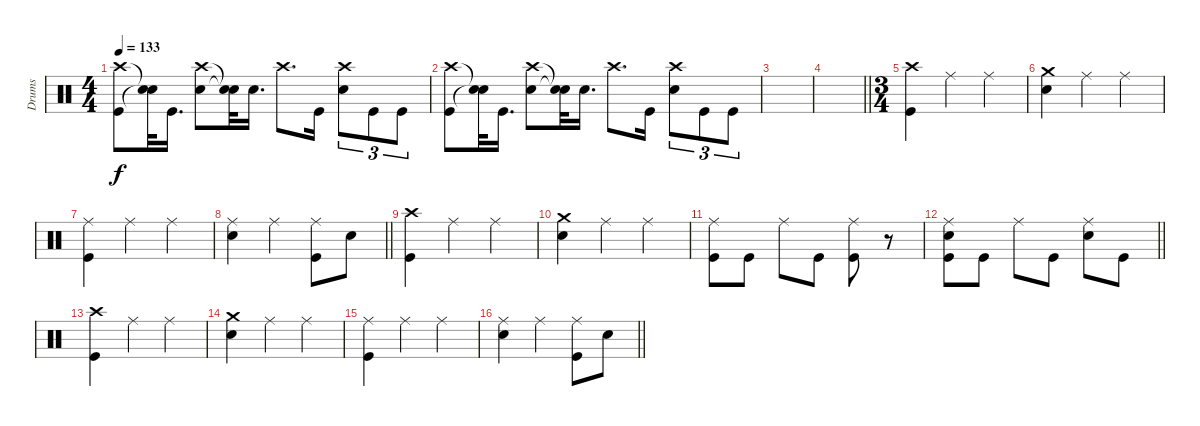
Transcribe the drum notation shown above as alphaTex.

\track ("Drums" "Drums") {instrument percussion}
\staff
\articulation defaults
\ts (4 4)
\tempo 133
\clef neutral
\ks c
("Crash high (hit)" "Kick (hit)").8{dy f} ("Snare (hit)"{t} "Snare (hit)"{t}).32 "Kick (hit)".16{d} ("Crash high (hit)" "Electric Snare (hit)").8 ("Snare (hit)"{t} "Snare (hit)"{t}).32 "Electric Snare (hit)".16{d} "Crash high (hit)".8{d} "Kick (hit)".16 ("Crash high (hit)" "Electric Snare (hit)").8{tu (3 2)} "Kick (hit)".8{tu (3 2)} "Kick (hit)".8{tu (3 2)} |
("Crash high (hit)" "Kick (hit)").8 ("Snare (hit)"{t} "Snare (hit)"{t}).32 "Kick (hit)".16{d} ("Crash high (hit)" "Electric Snare (hit)").8 ("Snare (hit)"{t} "Snare (hit)"{t}).32 "Electric Snare (hit)".16{d} "Crash high (hit)".8{d} "Kick (hit)".16 ("Crash high (hit)" "Electric Snare (hit)").8{tu (3 2)} "Kick (hit)".8{tu (3 2)} "Kick (hit)".8{tu (3 2)} |
|
\barLineRight lightlight
|
\ts (3 4)
\section ("" "")
("Crash high (hit)" "Kick (hit)").4 "Ride (middle)".4 "Ride (middle)".4 |
("Crash medium (hit)" "Electric Snare (hit)").4 "Ride (middle)".4 "Ride (middle)".4 |
("Ride (middle)" "Kick (hit)").4 "Ride (middle)".4 "Ride (middle)".4 |
\barLineRight lightlight
("Ride (middle)" "Electric Snare (hit)").4 "Ride (middle)".4 ("Ride (middle)" "Kick (hit)").8 "Electric Snare (hit)".8 |
("Crash high (hit)" "Kick (hit)").4 "Ride (middle)".4 "Ride (middle)".4 |
("Crash medium (hit)" "Electric Snare (hit)").4 "Ride (middle)".4 "Ride (middle)".4 |
("Ride (middle)" "Kick (hit)").8 "Kick (hit)".8 "Ride (middle)".8 "Kick (hit)".8 ("Ride (middle)" "Kick (hit)").8 r.8 |
\barLineRight lightlight
("Ride (middle)" "Electric Snare (hit)" "Kick (hit)").8 "Kick (hit)".8 "Ride (middle)".8 "Kick (hit)".8 ("Ride (middle)" "Electric Snare (hit)").8 "Kick (hit)".8 |
("Crash high (hit)" "Kick (hit)").4 "Ride (middle)".4 "Ride (middle)".4 |
("Crash medium (hit)" "Electric Snare (hit)").4 "Ride (middle)".4 "Ride (middle)".4 |
("Ride (middle)" "Kick (hit)").4 "Ride (middle)".4 "Ride (middle)".4 |
\barLineRight lightlight
("Ride (middle)" "Electric Snare (hit)").4 "Ride (middle)".4 ("Ride (middle)" "Kick (hit)").8 "Electric Snare (hit)".8
